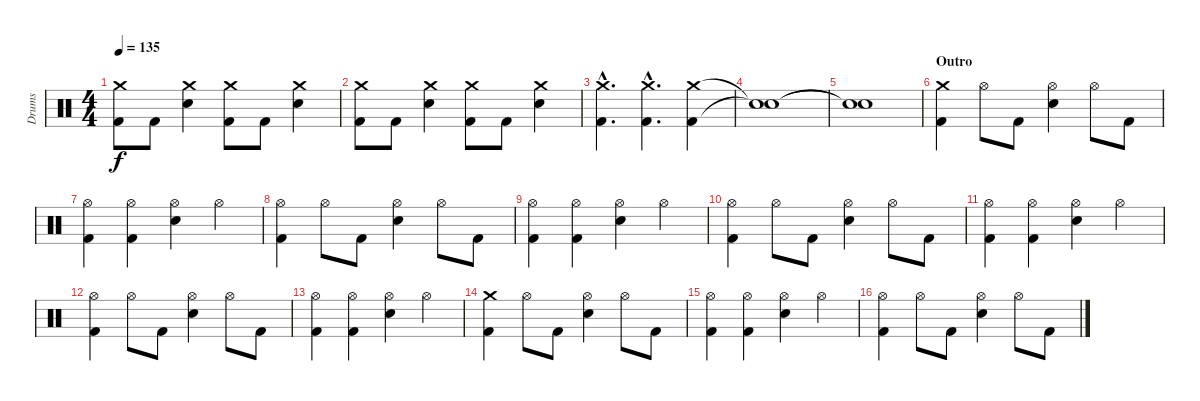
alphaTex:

\track ("Drums" "Drums") {instrument percussion}
\staff {score}
\articulation defaults
\ts (4 4)
\tempo 135
\clef neutral
\ks c
("Crash medium (hit)" "Kick (hit) 2").8{dy f} "Kick (hit) 2".8 ("Crash medium (hit)" "Electric Snare (hit)").4 ("Crash medium (hit)" "Kick (hit) 2").8 "Kick (hit) 2".8 ("Crash medium (hit)" "Electric Snare (hit)").4 |
("Crash medium (hit)" "Kick (hit) 2").8 "Kick (hit) 2".8 ("Crash medium (hit)" "Electric Snare (hit)").4 ("Crash medium (hit)" "Kick (hit) 2").8 "Kick (hit) 2".8 ("Crash medium (hit)" "Electric Snare (hit)").4 |
("Crash medium (hit)"{hac} "Kick (hit) 2"{hac}).4{d} ("Crash medium (hit)"{hac} "Kick (hit) 2"{hac}).4{d} ("Crash medium (hit)" "Kick (hit) 2").4 |
("Snare (hit)"{t} "Snare (hit)"{t}).1 |
("Snare (hit)"{t} "Snare (hit)"{t}).1 |
\section ("" "Outro")
("Crash medium (hit)" "Kick (hit) 2").4 "Hi-Hat (open)".8 "Kick (hit) 2".8 ("Hi-Hat (open)" "Electric Snare (hit)").4 "Hi-Hat (open)".8 "Kick (hit) 2".8 |
("Hi-Hat (open)" "Kick (hit) 2").4 ("Hi-Hat (open)" "Kick (hit) 2").4 ("Hi-Hat (open)" "Electric Snare (hit)").4 "Hi-Hat (open)".4 |
("Hi-Hat (open)" "Kick (hit) 2").4 "Hi-Hat (open)".8 "Kick (hit) 2".8 ("Hi-Hat (open)" "Electric Snare (hit)").4 "Hi-Hat (open)".8 "Kick (hit) 2".8 |
("Hi-Hat (open)" "Kick (hit) 2").4 ("Hi-Hat (open)" "Kick (hit) 2").4 ("Hi-Hat (open)" "Electric Snare (hit)").4 "Hi-Hat (open)".4 |
("Hi-Hat (open)" "Kick (hit) 2").4 "Hi-Hat (open)".8 "Kick (hit) 2".8 ("Hi-Hat (open)" "Electric Snare (hit)").4 "Hi-Hat (open)".8 "Kick (hit) 2".8 |
("Hi-Hat (open)" "Kick (hit) 2").4 ("Hi-Hat (open)" "Kick (hit) 2").4 ("Hi-Hat (open)" "Electric Snare (hit)").4 "Hi-Hat (open)".4 |
("Hi-Hat (open)" "Kick (hit) 2").4 "Hi-Hat (open)".8 "Kick (hit) 2".8 ("Hi-Hat (open)" "Electric Snare (hit)").4 "Hi-Hat (open)".8 "Kick (hit) 2".8 |
("Hi-Hat (open)" "Kick (hit) 2").4 ("Hi-Hat (open)" "Kick (hit) 2").4 ("Hi-Hat (open)" "Electric Snare (hit)").4 "Hi-Hat (open)".4 |
("Crash medium (hit)" "Kick (hit) 2").4 "Hi-Hat (open)".8 "Kick (hit) 2".8 ("Hi-Hat (open)" "Electric Snare (hit)").4 "Hi-Hat (open)".8 "Kick (hit) 2".8 |
("Hi-Hat (open)" "Kick (hit) 2").4 ("Hi-Hat (open)" "Kick (hit) 2").4 ("Hi-Hat (open)" "Electric Snare (hit)").4 "Hi-Hat (open)".4 |
("Hi-Hat (open)" "Kick (hit) 2").4 "Hi-Hat (open)".8 "Kick (hit) 2".8 ("Hi-Hat (open)" "Electric Snare (hit)").4 "Hi-Hat (open)".8 "Kick (hit) 2".8
